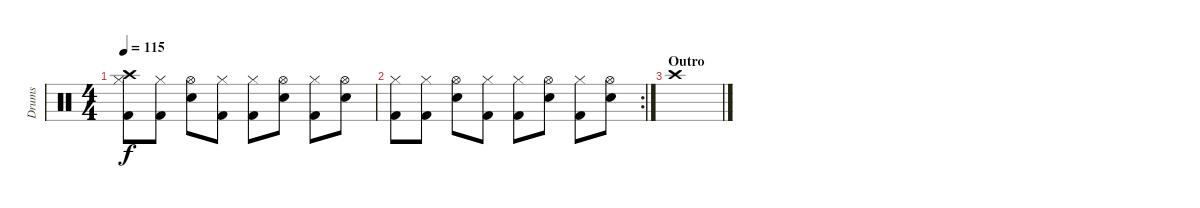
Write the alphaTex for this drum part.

\track ("Drums" "Drums") {instrument percussion}
\staff {score}
\articulation defaults
\ts (4 4)
\tempo 115
\clef neutral
\ks c
("Hi-Hat (closed)" "Crash high (hit)" "Kick (hit) 2").8{dy f} ("Hi-Hat (closed)" "Kick (hit) 2").8 ("Hi-Hat (open)" "Snare (hit) 2").8 ("Hi-Hat (closed)" "Kick (hit) 2").8 ("Hi-Hat (closed)" "Kick (hit) 2").8 ("Hi-Hat (open)" "Snare (hit) 2").8 ("Hi-Hat (closed)" "Kick (hit) 2").8 ("Hi-Hat (open)" "Snare (hit) 2").8 |
\rc 2
("Hi-Hat (closed)" "Kick (hit) 2").8 ("Hi-Hat (closed)" "Kick (hit) 2").8 ("Hi-Hat (open)" "Snare (hit) 2").8 ("Hi-Hat (closed)" "Kick (hit) 2").8 ("Hi-Hat (closed)" "Kick (hit) 2").8 ("Hi-Hat (open)" "Snare (hit) 2").8 ("Hi-Hat (closed)" "Kick (hit) 2").8 ("Hi-Hat (open)" "Snare (hit) 2").8 |
\section ("" "Outro")
"Crash high (hit)".1
